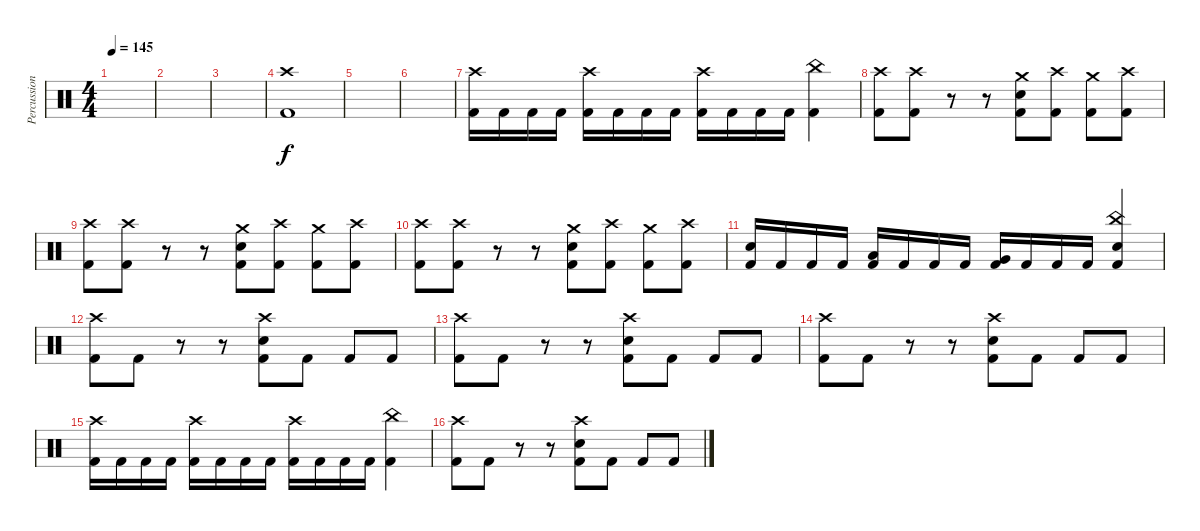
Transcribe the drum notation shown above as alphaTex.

\track ("Percussion" "Percussion") {instrument percussion}
\staff {score}
\articulation defaults
\ts (4 4)
\tempo 145
\clef neutral
\ks c
|
|
|
("Crash high (hit)" "Kick (hit) 2").1 |
|
|
("Crash high (hit)" "Kick (hit) 2").16 "Kick (hit) 2".16 "Kick (hit) 2".16 "Kick (hit) 2".16 ("Crash high (hit)" "Kick (hit) 2").16 "Kick (hit) 2".16 "Kick (hit) 2".16 "Kick (hit) 2".16 ("Crash high (hit)" "Kick (hit) 2").16 "Kick (hit) 2".16 "Kick (hit) 2".16 "Kick (hit) 2".16 ("China (hit)" "Kick (hit) 2").4 |
("Crash high (hit)" "Kick (hit) 2").8 ("Crash high (hit)" "Kick (hit) 2").8 r.8 r.8 ("Crash medium (hit)" "Electric Snare (hit)" "Kick (hit) 2").8 ("Crash high (hit)" "Kick (hit) 2").8 ("Crash medium (hit)" "Kick (hit) 2").8 ("Crash high (hit)" "Kick (hit) 2").8 |
("Crash high (hit)" "Kick (hit) 2").8 ("Crash high (hit)" "Kick (hit) 2").8 r.8 r.8 ("Crash medium (hit)" "Electric Snare (hit)" "Kick (hit) 2").8 ("Crash high (hit)" "Kick (hit) 2").8 ("Crash medium (hit)" "Kick (hit) 2").8 ("Crash high (hit)" "Kick (hit) 2").8 |
("Crash high (hit)" "Kick (hit) 2").8 ("Crash high (hit)" "Kick (hit) 2").8 r.8 r.8 ("Crash medium (hit)" "Electric Snare (hit)" "Kick (hit) 2").8 ("Crash high (hit)" "Kick (hit) 2").8 ("Crash medium (hit)" "Kick (hit) 2").8 ("Crash high (hit)" "Kick (hit) 2").8 |
("Electric Snare (hit)" "Kick (hit) 2").16 "Kick (hit) 2".16 "Kick (hit) 2".16 "Kick (hit) 2".16 ("Low Tom (hit)" "Kick (hit) 2").16 "Kick (hit) 2".16 "Kick (hit) 2".16 "Kick (hit) 2".16 ("Very Low Tom (hit)" "Kick (hit) 2").16 "Kick (hit) 2".16 "Kick (hit) 2".16 "Kick (hit) 2".16 ("China (hit)" "Electric Snare (hit)" "Kick (hit) 2").4 |
("Crash high (hit)" "Kick (hit) 2").8 "Kick (hit) 2".8 r.8 r.8 ("Crash high (hit)" "Electric Snare (hit)" "Kick (hit) 2").8 "Kick (hit) 2".8 "Kick (hit) 2".8 "Kick (hit) 2".8 |
("Crash high (hit)" "Kick (hit) 2").8 "Kick (hit) 2".8 r.8 r.8 ("Crash high (hit)" "Electric Snare (hit)" "Kick (hit) 2").8 "Kick (hit) 2".8 "Kick (hit) 2".8 "Kick (hit) 2".8 |
("Crash high (hit)" "Kick (hit) 2").8 "Kick (hit) 2".8 r.8 r.8 ("Crash high (hit)" "Electric Snare (hit)" "Kick (hit) 2").8 "Kick (hit) 2".8 "Kick (hit) 2".8 "Kick (hit) 2".8 |
("Crash high (hit)" "Kick (hit) 2").16 "Kick (hit) 2".16 "Kick (hit) 2".16 "Kick (hit) 2".16 ("Crash high (hit)" "Kick (hit) 2").16 "Kick (hit) 2".16 "Kick (hit) 2".16 "Kick (hit) 2".16 ("Crash high (hit)" "Kick (hit) 2").16 "Kick (hit) 2".16 "Kick (hit) 2".16 "Kick (hit) 2".16 ("China (hit)" "Kick (hit) 2").4 |
("Crash high (hit)" "Kick (hit) 2").8 "Kick (hit) 2".8 r.8 r.8 ("Crash high (hit)" "Electric Snare (hit)" "Kick (hit) 2").8 "Kick (hit) 2".8 "Kick (hit) 2".8 "Kick (hit) 2".8
